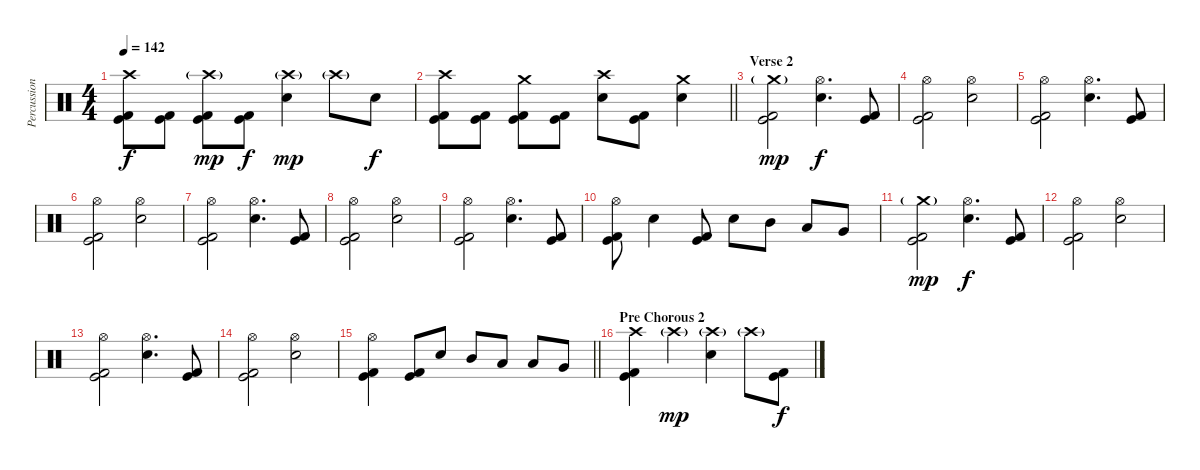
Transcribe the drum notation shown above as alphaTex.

\track ("Percussion" "Percussion") {instrument percussion}
\staff {score}
\articulation defaults
\ts (4 4)
\tempo 142
\clef neutral
\ks c
("Crash high (hit)" "Kick (hit)" "Kick (hit) 2").8{dy f} ("Kick (hit)" "Kick (hit) 2").8 ("Crash high (hit)"{g} "Kick (hit)" "Kick (hit) 2").8{dy mp} ("Kick (hit)" "Kick (hit) 2").8{dy f} ("Crash high (hit)"{g} "Electric Snare (hit)").4{dy mp} "Crash high (hit)"{g}.8 "Electric Snare (hit)".8{dy f} |
\barLineRight lightlight
("Crash high (hit)" "Kick (hit)" "Kick (hit) 2").8 ("Kick (hit)" "Kick (hit) 2").8 ("Crash medium (hit)" "Kick (hit)" "Kick (hit) 2").8 ("Kick (hit)" "Kick (hit) 2").8 ("Crash high (hit)" "Electric Snare (hit)").8 ("Kick (hit)" "Kick (hit) 2").8 ("Crash medium (hit)" "Electric Snare (hit)").4 |
\section ("" "Verse 2")
("Crash medium (hit)"{g} "Kick (hit)" "Kick (hit) 2").2{dy mp} ("Hi-Hat (open)" "Electric Snare (hit)").4{d dy f} ("Kick (hit)" "Kick (hit) 2").8 |
("Hi-Hat (open)" "Kick (hit)" "Kick (hit) 2").2 ("Hi-Hat (open)" "Electric Snare (hit)").2 |
("Hi-Hat (open)" "Kick (hit)" "Kick (hit) 2").2 ("Hi-Hat (open)" "Electric Snare (hit)").4{d} ("Kick (hit)" "Kick (hit) 2").8 |
("Hi-Hat (open)" "Kick (hit)" "Kick (hit) 2").2 ("Hi-Hat (open)" "Electric Snare (hit)").2 |
("Hi-Hat (open)" "Kick (hit)" "Kick (hit) 2").2 ("Hi-Hat (open)" "Electric Snare (hit)").4{d} ("Kick (hit)" "Kick (hit) 2").8 |
("Hi-Hat (open)" "Kick (hit)" "Kick (hit) 2").2 ("Hi-Hat (open)" "Electric Snare (hit)").2 |
("Hi-Hat (open)" "Kick (hit)" "Kick (hit) 2").2 ("Hi-Hat (open)" "Electric Snare (hit)").4{d} ("Kick (hit)" "Kick (hit) 2").8 |
("Hi-Hat (open)" "Kick (hit)" "Kick (hit) 2").8 "Electric Snare (hit)".4 ("Kick (hit)" "Kick (hit) 2").8 "Electric Snare (hit)".8 "Mid Tom (hit)".8 "Low Tom (hit)".8 "Very Low Tom (hit)".8 |
("Crash medium (hit)"{g} "Kick (hit)" "Kick (hit) 2").2{dy mp} ("Hi-Hat (open)" "Electric Snare (hit)").4{d dy f} ("Kick (hit)" "Kick (hit) 2").8 |
("Hi-Hat (open)" "Kick (hit)" "Kick (hit) 2").2 ("Hi-Hat (open)" "Electric Snare (hit)").2 |
("Hi-Hat (open)" "Kick (hit)" "Kick (hit) 2").2 ("Hi-Hat (open)" "Electric Snare (hit)").4{d} ("Kick (hit)" "Kick (hit) 2").8 |
("Hi-Hat (open)" "Kick (hit)" "Kick (hit) 2").2 ("Hi-Hat (open)" "Electric Snare (hit)").2 |
\barLineRight lightlight
("Hi-Hat (open)" "Kick (hit)" "Kick (hit) 2").4 ("Kick (hit)" "Kick (hit) 2").8 "Electric Snare (hit)".8 "Mid Tom (hit)".8 "Low Tom (hit)".8 "Low Tom (hit)".8 "Very Low Tom (hit)".8 |
\section ("" "Pre Chorous 2")
("Crash high (hit)" "Kick (hit)" "Kick (hit) 2").4 "Crash high (hit)"{g}.4{dy mp} ("Crash high (hit)"{g} "Electric Snare (hit)").4 "Crash high (hit)"{g}.8 ("Kick (hit)" "Kick (hit) 2").8{dy f}
